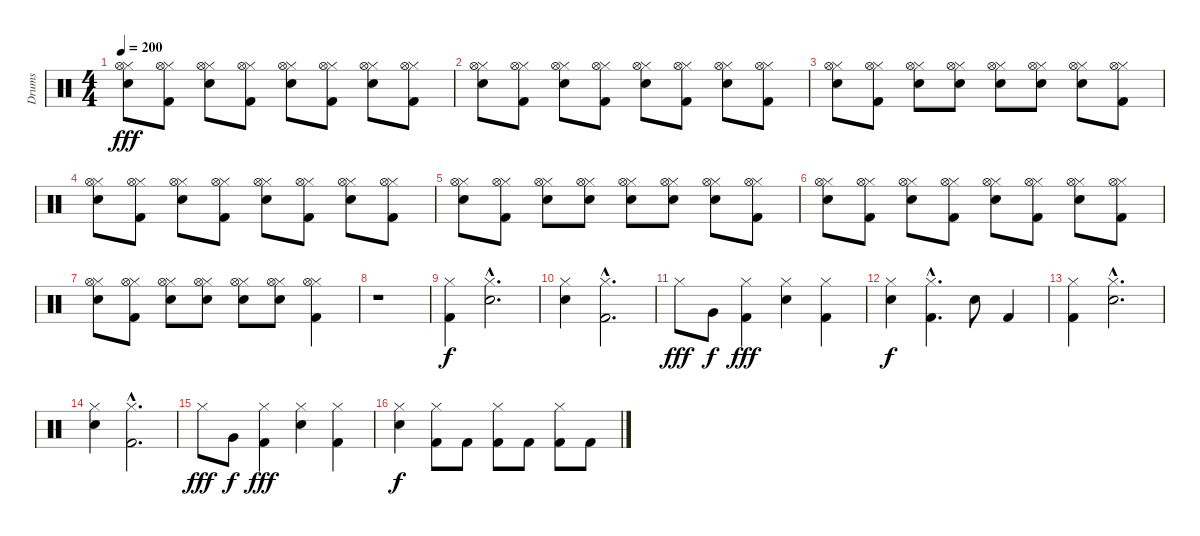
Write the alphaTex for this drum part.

\track ("Drums" "Drums") {instrument percussion}
\staff {score}
\articulation defaults
\ts (4 4)
\tempo 200
\clef neutral
\ks c
("Hi-Hat (closed)" "Electric Snare (hit)" "Hi-Hat (open)").8{dy fff} ("Hi-Hat (closed)" "Kick (hit) 2" "Hi-Hat (open)").8 ("Hi-Hat (closed)" "Electric Snare (hit)" "Hi-Hat (open)").8 ("Hi-Hat (closed)" "Kick (hit) 2" "Hi-Hat (open)").8 ("Hi-Hat (closed)" "Electric Snare (hit)" "Hi-Hat (open)").8 ("Hi-Hat (closed)" "Kick (hit) 2" "Hi-Hat (open)").8 ("Hi-Hat (closed)" "Electric Snare (hit)" "Hi-Hat (open)").8 ("Hi-Hat (closed)" "Kick (hit) 2" "Hi-Hat (open)").8 |
("Hi-Hat (closed)" "Electric Snare (hit)" "Hi-Hat (open)").8 ("Hi-Hat (closed)" "Kick (hit) 2" "Hi-Hat (open)").8 ("Hi-Hat (closed)" "Electric Snare (hit)" "Hi-Hat (open)").8 ("Hi-Hat (closed)" "Kick (hit) 2" "Hi-Hat (open)").8 ("Hi-Hat (closed)" "Electric Snare (hit)" "Hi-Hat (open)").8 ("Hi-Hat (closed)" "Kick (hit) 2" "Hi-Hat (open)").8 ("Hi-Hat (closed)" "Electric Snare (hit)" "Hi-Hat (open)").8 ("Hi-Hat (closed)" "Kick (hit) 2" "Hi-Hat (open)").8 |
("Hi-Hat (closed)" "Electric Snare (hit)" "Hi-Hat (open)").8 ("Hi-Hat (closed)" "Kick (hit) 2" "Hi-Hat (open)").8 ("Hi-Hat (closed)" "Electric Snare (hit)" "Hi-Hat (open)").8 ("Hi-Hat (closed)" "Electric Snare (hit)" "Hi-Hat (open)").8 ("Hi-Hat (closed)" "Electric Snare (hit)" "Hi-Hat (open)").8 ("Hi-Hat (closed)" "Electric Snare (hit)" "Hi-Hat (open)").8 ("Hi-Hat (closed)" "Electric Snare (hit)" "Hi-Hat (open)").8 ("Hi-Hat (closed)" "Kick (hit) 2" "Hi-Hat (open)").8 |
("Hi-Hat (closed)" "Electric Snare (hit)" "Hi-Hat (open)").8 ("Hi-Hat (closed)" "Kick (hit) 2" "Hi-Hat (open)").8 ("Hi-Hat (closed)" "Electric Snare (hit)" "Hi-Hat (open)").8 ("Hi-Hat (closed)" "Kick (hit) 2" "Hi-Hat (open)").8 ("Hi-Hat (closed)" "Electric Snare (hit)" "Hi-Hat (open)").8 ("Hi-Hat (closed)" "Kick (hit) 2" "Hi-Hat (open)").8 ("Hi-Hat (closed)" "Electric Snare (hit)" "Hi-Hat (open)").8 ("Hi-Hat (closed)" "Kick (hit) 2" "Hi-Hat (open)").8 |
("Hi-Hat (closed)" "Electric Snare (hit)" "Hi-Hat (open)").8 ("Hi-Hat (closed)" "Kick (hit) 2" "Hi-Hat (open)").8 ("Hi-Hat (closed)" "Electric Snare (hit)" "Hi-Hat (open)").8 ("Hi-Hat (closed)" "Electric Snare (hit)" "Hi-Hat (open)").8 ("Hi-Hat (closed)" "Electric Snare (hit)" "Hi-Hat (open)").8 ("Hi-Hat (closed)" "Electric Snare (hit)" "Hi-Hat (open)").8 ("Hi-Hat (closed)" "Electric Snare (hit)" "Hi-Hat (open)").8 ("Hi-Hat (closed)" "Kick (hit) 2" "Hi-Hat (open)").8 |
("Hi-Hat (closed)" "Electric Snare (hit)" "Hi-Hat (open)").8 ("Hi-Hat (closed)" "Kick (hit) 2" "Hi-Hat (open)").8 ("Hi-Hat (closed)" "Electric Snare (hit)" "Hi-Hat (open)").8 ("Hi-Hat (closed)" "Kick (hit) 2" "Hi-Hat (open)").8 ("Hi-Hat (closed)" "Electric Snare (hit)" "Hi-Hat (open)").8 ("Hi-Hat (closed)" "Kick (hit) 2" "Hi-Hat (open)").8 ("Hi-Hat (closed)" "Electric Snare (hit)" "Hi-Hat (open)").8 ("Hi-Hat (closed)" "Kick (hit) 2" "Hi-Hat (open)").8 |
("Hi-Hat (closed)" "Electric Snare (hit)" "Hi-Hat (open)").8 ("Hi-Hat (closed)" "Kick (hit) 2" "Hi-Hat (open)").8 ("Hi-Hat (closed)" "Electric Snare (hit)" "Hi-Hat (open)").8 ("Hi-Hat (closed)" "Electric Snare (hit)" "Hi-Hat (open)").8 ("Hi-Hat (closed)" "Electric Snare (hit)" "Hi-Hat (open)").8 ("Hi-Hat (closed)" "Electric Snare (hit)" "Hi-Hat (open)").8 ("Hi-Hat (closed)" "Kick (hit) 2" "Hi-Hat (open)").4 |
r.1 |
("Hi-Hat (closed)" "Kick (hit) 2").4{dy f} ("Hi-Hat (closed)"{hac} "Electric Snare (hit)"{hac}).2{d} |
("Hi-Hat (closed)" "Electric Snare (hit)").4 ("Hi-Hat (closed)"{hac} "Kick (hit) 2"{hac}).2{d} |
"Hi-Hat (closed)".8{dy fff} "Very Low Tom (hit)".8{dy f} ("Hi-Hat (closed)" "Kick (hit) 2").4{dy fff} ("Hi-Hat (closed)" "Electric Snare (hit)").4 ("Hi-Hat (closed)" "Kick (hit) 2").4 |
("Hi-Hat (closed)" "Electric Snare (hit)").4{dy f} ("Hi-Hat (closed)"{hac} "Kick (hit) 2"{hac}).4{d} "Electric Snare (hit)".8 "Kick (hit) 2".4 |
("Hi-Hat (closed)" "Kick (hit) 2").4 ("Hi-Hat (closed)"{hac} "Electric Snare (hit)"{hac}).2{d} |
("Hi-Hat (closed)" "Electric Snare (hit)").4 ("Hi-Hat (closed)"{hac} "Kick (hit) 2"{hac}).2{d} |
"Hi-Hat (closed)".8{dy fff} "Very Low Tom (hit)".8{dy f} ("Hi-Hat (closed)" "Kick (hit) 2").4{dy fff} ("Hi-Hat (closed)" "Electric Snare (hit)").4 ("Hi-Hat (closed)" "Kick (hit) 2").4 |
("Hi-Hat (closed)" "Electric Snare (hit)").4{dy f} ("Hi-Hat (closed)" "Kick (hit) 2").8 "Kick (hit) 2".8 ("Hi-Hat (closed)" "Kick (hit) 2").8 "Kick (hit) 2".8 ("Hi-Hat (closed)" "Kick (hit) 2").8 "Kick (hit) 2".8
